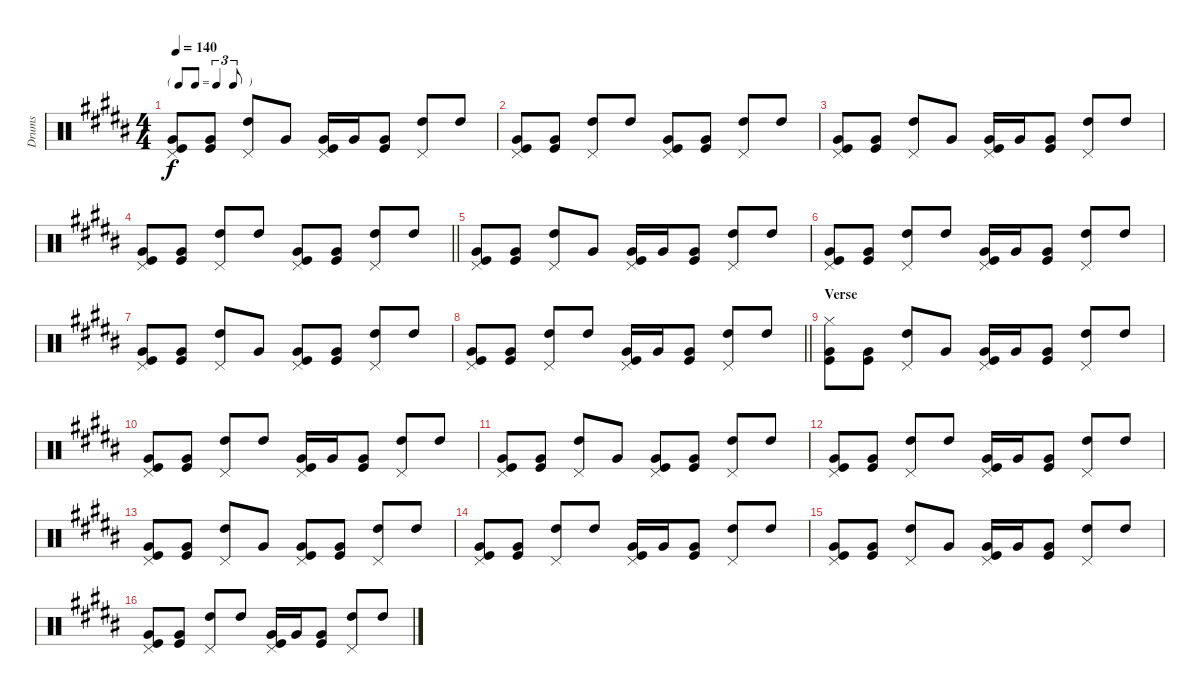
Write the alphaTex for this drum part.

\track ("Drums" "Drums") {instrument percussion}
\staff {score}
\articulation defaults
\ts (4 4)
\tf triplet8th
\tempo 140
\clef neutral
\ks b
("Kick (hit)" "Very Low Tom (hit)" "Pedal Hi-Hat (hit)").8{dy f} ("Kick (hit)" "Very Low Tom (hit)").8 ("High Tom (hit)" "Pedal Hi-Hat (hit)").8 "Very Low Tom (hit)".8 ("Very Low Tom (hit)" "Kick (hit)" "Pedal Hi-Hat (hit)").16 "Very Low Tom (hit)".16 ("Very Low Tom (hit)" "Kick (hit)").8 ("High Tom (hit)" "Pedal Hi-Hat (hit)").8 "High Tom (hit)".8 |
("Kick (hit)" "Very Low Tom (hit)" "Pedal Hi-Hat (hit)").8 ("Kick (hit)" "Very Low Tom (hit)").8 ("High Tom (hit)" "Pedal Hi-Hat (hit)").8 "High Tom (hit)".8 ("Very Low Tom (hit)" "Kick (hit)" "Pedal Hi-Hat (hit)").8 ("Very Low Tom (hit)" "Kick (hit)").8 ("High Tom (hit)" "Pedal Hi-Hat (hit)").8 "High Tom (hit)".8 |
("Kick (hit)" "Very Low Tom (hit)" "Pedal Hi-Hat (hit)").8 ("Kick (hit)" "Very Low Tom (hit)").8 ("High Tom (hit)" "Pedal Hi-Hat (hit)").8 "Very Low Tom (hit)".8 ("Very Low Tom (hit)" "Kick (hit)" "Pedal Hi-Hat (hit)").16 "Very Low Tom (hit)".16 ("Very Low Tom (hit)" "Kick (hit)").8 ("High Tom (hit)" "Pedal Hi-Hat (hit)").8 "High Tom (hit)".8 |
\barLineRight lightlight
("Kick (hit)" "Very Low Tom (hit)" "Pedal Hi-Hat (hit)").8 ("Kick (hit)" "Very Low Tom (hit)").8 ("High Tom (hit)" "Pedal Hi-Hat (hit)").8 "High Tom (hit)".8 ("Very Low Tom (hit)" "Kick (hit)" "Pedal Hi-Hat (hit)").8 ("Very Low Tom (hit)" "Kick (hit)").8 ("High Tom (hit)" "Pedal Hi-Hat (hit)").8 "High Tom (hit)".8 |
("Kick (hit)" "Very Low Tom (hit)" "Pedal Hi-Hat (hit)").8 ("Kick (hit)" "Very Low Tom (hit)").8 ("High Tom (hit)" "Pedal Hi-Hat (hit)").8 "Very Low Tom (hit)".8 ("Very Low Tom (hit)" "Kick (hit)" "Pedal Hi-Hat (hit)").16 "Very Low Tom (hit)".16 ("Very Low Tom (hit)" "Kick (hit)").8 ("High Tom (hit)" "Pedal Hi-Hat (hit)").8 "High Tom (hit)".8 |
("Kick (hit)" "Very Low Tom (hit)" "Pedal Hi-Hat (hit)").8 ("Kick (hit)" "Very Low Tom (hit)").8 ("High Tom (hit)" "Pedal Hi-Hat (hit)").8 "High Tom (hit)".8 ("Very Low Tom (hit)" "Kick (hit)" "Pedal Hi-Hat (hit)").16 "Very Low Tom (hit)".16 ("Very Low Tom (hit)" "Kick (hit)").8 ("High Tom (hit)" "Pedal Hi-Hat (hit)").8 "High Tom (hit)".8 |
("Kick (hit)" "Very Low Tom (hit)" "Pedal Hi-Hat (hit)").8 ("Kick (hit)" "Very Low Tom (hit)").8 ("High Tom (hit)" "Pedal Hi-Hat (hit)").8 "Very Low Tom (hit)".8 ("Very Low Tom (hit)" "Kick (hit)" "Pedal Hi-Hat (hit)").8 ("Very Low Tom (hit)" "Kick (hit)").8 ("High Tom (hit)" "Pedal Hi-Hat (hit)").8 "High Tom (hit)".8 |
\barLineRight lightlight
("Kick (hit)" "Very Low Tom (hit)" "Pedal Hi-Hat (hit)").8 ("Kick (hit)" "Very Low Tom (hit)").8 ("High Tom (hit)" "Pedal Hi-Hat (hit)").8 "High Tom (hit)".8 ("Very Low Tom (hit)" "Kick (hit)" "Pedal Hi-Hat (hit)").16 "Very Low Tom (hit)".16 ("Very Low Tom (hit)" "Kick (hit)").8 ("High Tom (hit)" "Pedal Hi-Hat (hit)").8 "High Tom (hit)".8 |
\section ("" "Verse")
("Kick (hit)" "Very Low Tom (hit)" "Hi-Hat (closed)").8 ("Kick (hit)" "Very Low Tom (hit)").8 ("High Tom (hit)" "Pedal Hi-Hat (hit)").8 "Very Low Tom (hit)".8 ("Very Low Tom (hit)" "Kick (hit)" "Pedal Hi-Hat (hit)").16 "Very Low Tom (hit)".16 ("Very Low Tom (hit)" "Kick (hit)").8 ("High Tom (hit)" "Pedal Hi-Hat (hit)").8 "High Tom (hit)".8 |
("Kick (hit)" "Very Low Tom (hit)" "Pedal Hi-Hat (hit)").8 ("Kick (hit)" "Very Low Tom (hit)").8 ("High Tom (hit)" "Pedal Hi-Hat (hit)").8 "High Tom (hit)".8 ("Very Low Tom (hit)" "Kick (hit)" "Pedal Hi-Hat (hit)").16 "Very Low Tom (hit)".16 ("Very Low Tom (hit)" "Kick (hit)").8 ("High Tom (hit)" "Pedal Hi-Hat (hit)").8 "High Tom (hit)".8 |
("Kick (hit)" "Very Low Tom (hit)" "Pedal Hi-Hat (hit)").8 ("Kick (hit)" "Very Low Tom (hit)").8 ("High Tom (hit)" "Pedal Hi-Hat (hit)").8 "Very Low Tom (hit)".8 ("Very Low Tom (hit)" "Kick (hit)" "Pedal Hi-Hat (hit)").8 ("Very Low Tom (hit)" "Kick (hit)").8 ("High Tom (hit)" "Pedal Hi-Hat (hit)").8 "High Tom (hit)".8 |
("Kick (hit)" "Very Low Tom (hit)" "Pedal Hi-Hat (hit)").8 ("Kick (hit)" "Very Low Tom (hit)").8 ("High Tom (hit)" "Pedal Hi-Hat (hit)").8 "High Tom (hit)".8 ("Very Low Tom (hit)" "Kick (hit)" "Pedal Hi-Hat (hit)").16 "Very Low Tom (hit)".16 ("Very Low Tom (hit)" "Kick (hit)").8 ("High Tom (hit)" "Pedal Hi-Hat (hit)").8 "High Tom (hit)".8 |
("Kick (hit)" "Very Low Tom (hit)" "Pedal Hi-Hat (hit)").8 ("Kick (hit)" "Very Low Tom (hit)").8 ("High Tom (hit)" "Pedal Hi-Hat (hit)").8 "Very Low Tom (hit)".8 ("Very Low Tom (hit)" "Kick (hit)" "Pedal Hi-Hat (hit)").8 ("Very Low Tom (hit)" "Kick (hit)").8 ("High Tom (hit)" "Pedal Hi-Hat (hit)").8 "High Tom (hit)".8 |
("Kick (hit)" "Very Low Tom (hit)" "Pedal Hi-Hat (hit)").8 ("Kick (hit)" "Very Low Tom (hit)").8 ("High Tom (hit)" "Pedal Hi-Hat (hit)").8 "High Tom (hit)".8 ("Very Low Tom (hit)" "Kick (hit)" "Pedal Hi-Hat (hit)").16 "Very Low Tom (hit)".16 ("Very Low Tom (hit)" "Kick (hit)").8 ("High Tom (hit)" "Pedal Hi-Hat (hit)").8 "High Tom (hit)".8 |
("Kick (hit)" "Very Low Tom (hit)" "Pedal Hi-Hat (hit)").8 ("Kick (hit)" "Very Low Tom (hit)").8 ("High Tom (hit)" "Pedal Hi-Hat (hit)").8 "Very Low Tom (hit)".8 ("Very Low Tom (hit)" "Kick (hit)" "Pedal Hi-Hat (hit)").16 "Very Low Tom (hit)".16 ("Very Low Tom (hit)" "Kick (hit)").8 ("High Tom (hit)" "Pedal Hi-Hat (hit)").8 "High Tom (hit)".8 |
("Kick (hit)" "Very Low Tom (hit)" "Pedal Hi-Hat (hit)").8 ("Kick (hit)" "Very Low Tom (hit)").8 ("High Tom (hit)" "Pedal Hi-Hat (hit)").8 "High Tom (hit)".8 ("Very Low Tom (hit)" "Kick (hit)" "Pedal Hi-Hat (hit)").16 "Very Low Tom (hit)".16 ("Very Low Tom (hit)" "Kick (hit)").8 ("High Tom (hit)" "Pedal Hi-Hat (hit)").8 "High Tom (hit)".8
